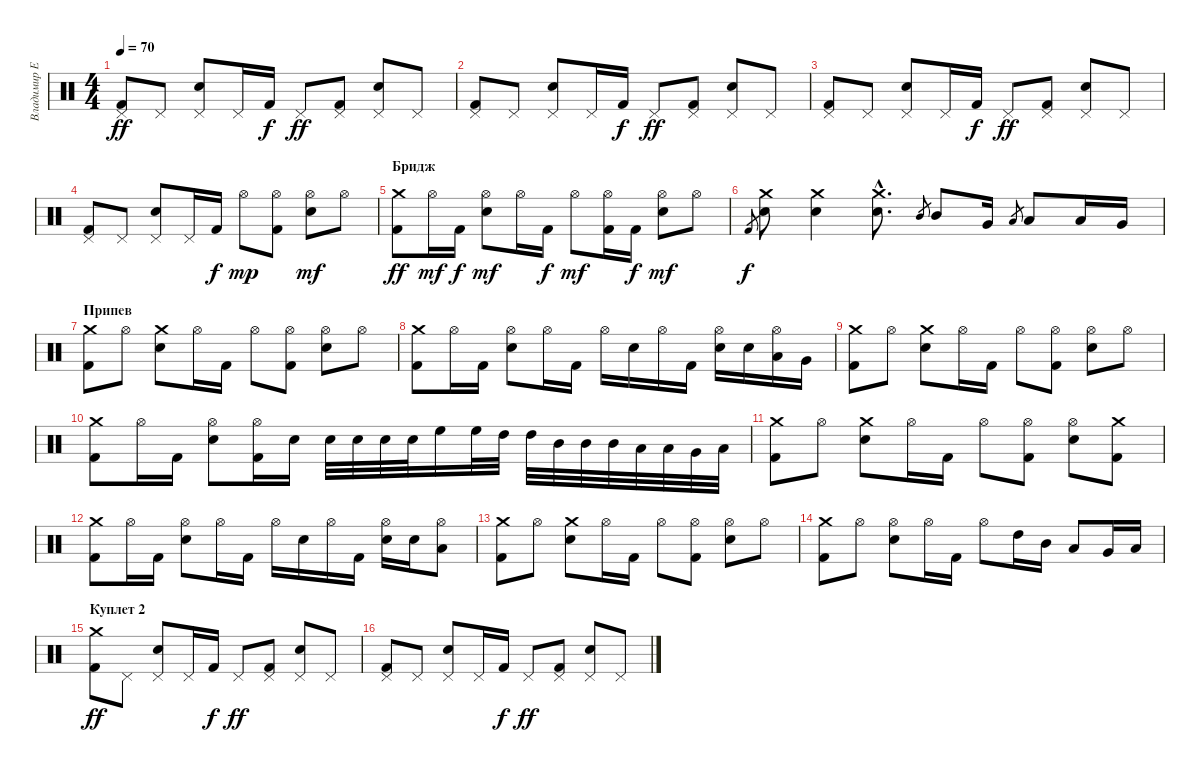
\track ("Владимир Ермаков" "Владимир Е") {instrument percussion}
\staff {score}
\articulation defaults
\ts (4 4)
\tempo 70
\clef neutral
\ks c
("Pedal Hi-Hat (hit)" "Kick (hit) 2").8{dy ff} "Pedal Hi-Hat (hit)".8 ("Pedal Hi-Hat (hit)" "Electric Snare (hit)").8 "Pedal Hi-Hat (hit)".16 "Kick (hit) 2".16{dy f} "Pedal Hi-Hat (hit)".8{dy ff} ("Pedal Hi-Hat (hit)" "Kick (hit) 2").8 ("Pedal Hi-Hat (hit)" "Electric Snare (hit)").8 "Pedal Hi-Hat (hit)".8 |
("Pedal Hi-Hat (hit)" "Kick (hit) 2").8 "Pedal Hi-Hat (hit)".8 ("Pedal Hi-Hat (hit)" "Electric Snare (hit)").8 "Pedal Hi-Hat (hit)".16 "Kick (hit) 2".16{dy f} "Pedal Hi-Hat (hit)".8{dy ff} ("Pedal Hi-Hat (hit)" "Kick (hit) 2").8 ("Pedal Hi-Hat (hit)" "Electric Snare (hit)").8 "Pedal Hi-Hat (hit)".8 |
("Pedal Hi-Hat (hit)" "Kick (hit) 2").8 "Pedal Hi-Hat (hit)".8 ("Pedal Hi-Hat (hit)" "Electric Snare (hit)").8 "Pedal Hi-Hat (hit)".16 "Kick (hit) 2".16{dy f} "Pedal Hi-Hat (hit)".8{dy ff} ("Pedal Hi-Hat (hit)" "Kick (hit) 2").8 ("Pedal Hi-Hat (hit)" "Electric Snare (hit)").8 "Pedal Hi-Hat (hit)".8 |
("Pedal Hi-Hat (hit)" "Kick (hit) 2").8 "Pedal Hi-Hat (hit)".8 ("Pedal Hi-Hat (hit)" "Electric Snare (hit)").8 "Pedal Hi-Hat (hit)".16 "Kick (hit) 2".16{dy f} "Hi-Hat (open)".8{dy mp} ("Hi-Hat (open)" "Kick (hit) 2").8 ("Hi-Hat (open)" "Electric Snare (hit)").8{dy mf} "Hi-Hat (open)".8 |
\section ("" "Бридж")
("Crash medium (hit)" "Kick (hit) 2").8{dy ff} "Hi-Hat (open)".16{dy mf} "Kick (hit) 2".16{dy f} ("Hi-Hat (open)" "Electric Snare (hit)").8{dy mf} "Hi-Hat (open)".16 "Kick (hit) 2".16{dy f} "Hi-Hat (open)".8{dy mf} ("Hi-Hat (open)" "Kick (hit) 2").16 "Kick (hit) 2".16{dy f} ("Hi-Hat (open)" "Electric Snare (hit)").8{dy mf} "Hi-Hat (open)".8 |
"Kick (hit) 2".8{gr dy f} ("Electric Snare (hit)" "Crash medium (hit)").8 ("Electric Snare (hit)" "Crash medium (hit)").4 ("Electric Snare (hit)"{hac} "Crash medium (hit)"{hac}).8{d} "Mid Tom (hit)".8{gr} "Mid Tom (hit)".8 "Very Low Tom (hit)".16 "Low Tom (hit)".8{gr} "Low Tom (hit)".8 "Low Tom (hit)".16 "Very Low Tom (hit)".16 |
\section ("" "Припев")
("Crash medium (hit)" "Kick (hit) 2").8 "Hi-Hat (open)".8 ("Crash medium (hit)" "Electric Snare (hit)").8 "Hi-Hat (open)".16 "Kick (hit) 2".16 "Hi-Hat (open)".8 ("Hi-Hat (open)" "Kick (hit) 2").8 ("Hi-Hat (open)" "Electric Snare (hit)").8 "Hi-Hat (open)".8 |
("Crash medium (hit)" "Kick (hit) 2").8 "Hi-Hat (open)".16 "Kick (hit) 2".16 ("Hi-Hat (open)" "Electric Snare (hit)").8 "Hi-Hat (open)".16 "Kick (hit) 2".16 "Hi-Hat (open)".16 "Electric Snare (hit)".16 "Hi-Hat (open)".16 "Kick (hit) 2".16 ("Hi-Hat (open)" "Electric Snare (hit)").16 "Electric Snare (hit)".16 ("Hi-Hat (open)" "Low Tom (hit)").16 "Very Low Tom (hit)".16 |
("Crash medium (hit)" "Kick (hit) 2").8 "Hi-Hat (open)".8 ("Crash medium (hit)" "Electric Snare (hit)").8 "Hi-Hat (open)".16 "Kick (hit) 2".16 "Hi-Hat (open)".8 ("Hi-Hat (open)" "Kick (hit) 2").8 ("Hi-Hat (open)" "Electric Snare (hit)").8 "Hi-Hat (open)".8 |
("Crash medium (hit)" "Kick (hit) 2").8 "Hi-Hat (open)".16 "Kick (hit) 2".16 ("Hi-Hat (open)" "Electric Snare (hit)").8 ("Hi-Hat (open)" "Kick (hit) 2").16 "Electric Snare (hit)".16 "Electric Snare (hit)".32 "Electric Snare (hit)".32 "Electric Snare (hit)".32 "Electric Snare (hit)".32 "High Floor Tom (hit)".16 "High Floor Tom (hit)".32 "High Tom (hit)".32 "High Tom (hit)".32 "Mid Tom (hit)".32 "Mid Tom (hit)".32 "Mid Tom (hit)".32 "Low Tom (hit)".32 "Low Tom (hit)".32 "Very Low Tom (hit)".32 "Low Floor Tom (hit)".32 |
("Crash medium (hit)" "Kick (hit) 2").8 "Hi-Hat (open)".8 ("Crash medium (hit)" "Electric Snare (hit)").8 "Hi-Hat (open)".16 "Kick (hit) 2".16 "Hi-Hat (open)".8 ("Hi-Hat (open)" "Kick (hit) 2").8 ("Hi-Hat (open)" "Electric Snare (hit)").8 ("Crash medium (hit)" "Kick (hit) 2").8 |
("Crash medium (hit)" "Kick (hit) 2").8 "Hi-Hat (open)".16 "Kick (hit) 2".16 ("Hi-Hat (open)" "Electric Snare (hit)").8 "Hi-Hat (open)".16 "Kick (hit) 2".16 "Hi-Hat (open)".16 "Electric Snare (hit)".16 "Hi-Hat (open)".16 "Kick (hit) 2".16 ("Hi-Hat (open)" "Electric Snare (hit)").16 "Electric Snare (hit)".16 ("Hi-Hat (open)" "Low Tom (hit)").8 |
("Crash medium (hit)" "Kick (hit) 2").8 "Hi-Hat (open)".8 ("Crash medium (hit)" "Electric Snare (hit)").8 "Hi-Hat (open)".16 "Kick (hit) 2".16 "Hi-Hat (open)".8 ("Hi-Hat (open)" "Kick (hit) 2").8 ("Hi-Hat (open)" "Electric Snare (hit)").8 "Hi-Hat (open)".8 |
("Crash medium (hit)" "Kick (hit) 2").8 "Hi-Hat (open)".8 ("Hi-Hat (open)" "Electric Snare (hit)").8 "Hi-Hat (open)".16 "Kick (hit) 2".16 "Hi-Hat (open)".8 "High Tom (hit)".16 "Mid Tom (hit)".16 "Low Tom (hit)".8 "Very Low Tom (hit)".16 "Low Floor Tom (hit)".16 |
\section ("" "Куплет 2")
("Crash medium (hit)" "Kick (hit) 2").8{dy ff} "Pedal Hi-Hat (hit)".8 ("Pedal Hi-Hat (hit)" "Electric Snare (hit)").8 "Pedal Hi-Hat (hit)".16 "Kick (hit) 2".16{dy f} "Pedal Hi-Hat (hit)".8{dy ff} ("Pedal Hi-Hat (hit)" "Kick (hit) 2").8 ("Pedal Hi-Hat (hit)" "Electric Snare (hit)").8 "Pedal Hi-Hat (hit)".8 |
("Pedal Hi-Hat (hit)" "Kick (hit) 2").8 "Pedal Hi-Hat (hit)".8 ("Pedal Hi-Hat (hit)" "Electric Snare (hit)").8 "Pedal Hi-Hat (hit)".16 "Kick (hit) 2".16{dy f} "Pedal Hi-Hat (hit)".8{dy ff} ("Pedal Hi-Hat (hit)" "Kick (hit) 2").8 ("Pedal Hi-Hat (hit)" "Electric Snare (hit)").8 "Pedal Hi-Hat (hit)".8
